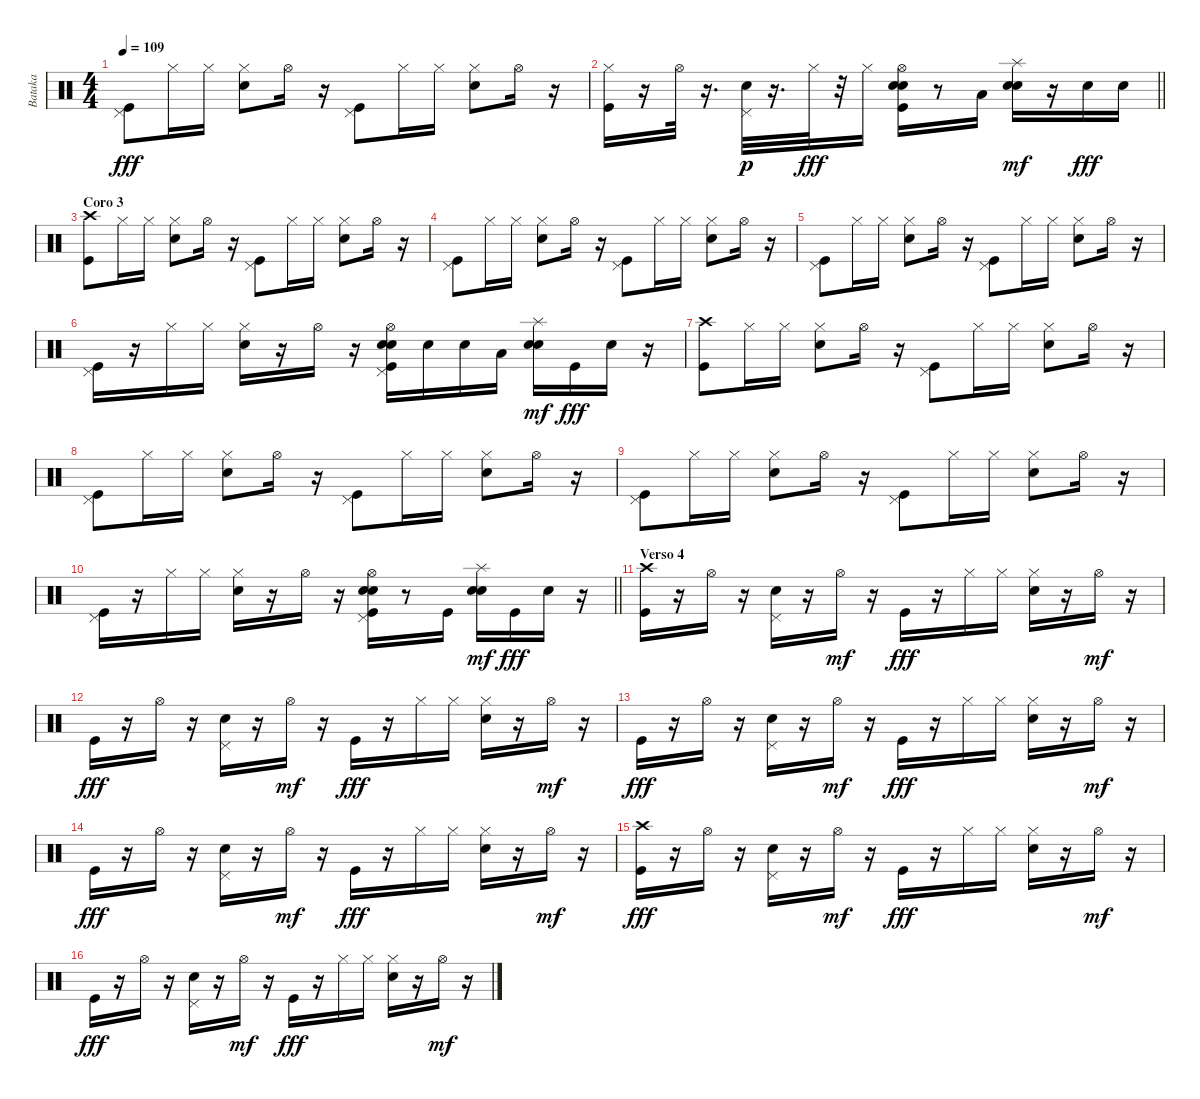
\track ("Bataka" "Bataka") {instrument percussion}
\staff {score}
\articulation defaults
\ts (4 4)
\tempo 109
\clef neutral
\ks c
("Kick (hit)" "Pedal Hi-Hat (hit)").8{dy fff} "Hi-Hat (closed)".16 "Hi-Hat (closed)".16 ("Snare (hit) 2" "Hi-Hat (closed)").8 "Hi-Hat (open)".16 r.16 ("Kick (hit)" "Pedal Hi-Hat (hit)").8 "Hi-Hat (closed)".16 "Hi-Hat (closed)".16 ("Snare (hit) 2" "Hi-Hat (closed)").8 "Hi-Hat (open)".16 r.16 |
\barLineRight lightlight
("Kick (hit)" "Hi-Hat (closed)").16 r.16 "Hi-Hat (open)".32 r.16{d} ("Snare (hit) 2" "Pedal Hi-Hat (hit)").32{dy p} r.16{d} "Hi-Hat (closed)".32{dy fff} r.32 "Hi-Hat (closed)".16 ("Snare (hit) 2" "Kick (hit)" "Snare (hit) 2" "Hi-Hat (open)").16 r.8 "Low Floor Tom (hit)".16 ("Snare (hit) 2" "Snare (hit) 2" "Splash (hit)").16{dy mf} r.16 "Snare (hit) 2".16{dy fff} "Snare (hit) 2".16 |
\section ("" "Coro 3")
("Kick (hit)" "Crash high (hit)").8 "Hi-Hat (closed)".16 "Hi-Hat (closed)".16 ("Snare (hit) 2" "Hi-Hat (closed)").8 "Hi-Hat (open)".16 r.16 ("Kick (hit)" "Pedal Hi-Hat (hit)").8 "Hi-Hat (closed)".16 "Hi-Hat (closed)".16 ("Snare (hit) 2" "Hi-Hat (closed)").8 "Hi-Hat (open)".16 r.16 |
("Kick (hit)" "Pedal Hi-Hat (hit)").8 "Hi-Hat (closed)".16 "Hi-Hat (closed)".16 ("Snare (hit) 2" "Hi-Hat (closed)").8 "Hi-Hat (open)".16 r.16 ("Kick (hit)" "Pedal Hi-Hat (hit)").8 "Hi-Hat (closed)".16 "Hi-Hat (closed)".16 ("Snare (hit) 2" "Hi-Hat (closed)").8 "Hi-Hat (open)".16 r.16 |
("Kick (hit)" "Pedal Hi-Hat (hit)").8 "Hi-Hat (closed)".16 "Hi-Hat (closed)".16 ("Snare (hit) 2" "Hi-Hat (closed)").8 "Hi-Hat (open)".16 r.16 ("Kick (hit)" "Pedal Hi-Hat (hit)").8 "Hi-Hat (closed)".16 "Hi-Hat (closed)".16 ("Snare (hit) 2" "Hi-Hat (closed)").8 "Hi-Hat (open)".16 r.16 |
("Kick (hit)" "Pedal Hi-Hat (hit)").16 r.16 "Hi-Hat (closed)".16 "Hi-Hat (closed)".16 ("Snare (hit) 2" "Hi-Hat (closed)").16 r.16 "Hi-Hat (open)".16 r.16 ("Snare (hit) 2" "Kick (hit)" "Snare (hit) 2" "Hi-Hat (open)" "Pedal Hi-Hat (hit)").16 "Snare (hit) 2".16 "Snare (hit) 2".16 "Low Floor Tom (hit)".16 ("Snare (hit) 2" "Snare (hit) 2" "Splash (hit)").16{dy mf} "Kick (hit)".16{dy fff} "Snare (hit) 2".16 r.16 |
("Kick (hit)" "Crash high (hit)").8 "Hi-Hat (closed)".16 "Hi-Hat (closed)".16 ("Snare (hit) 2" "Hi-Hat (closed)").8 "Hi-Hat (open)".16 r.16 ("Kick (hit)" "Pedal Hi-Hat (hit)").8 "Hi-Hat (closed)".16 "Hi-Hat (closed)".16 ("Snare (hit) 2" "Hi-Hat (closed)").8 "Hi-Hat (open)".16 r.16 |
("Kick (hit)" "Pedal Hi-Hat (hit)").8 "Hi-Hat (closed)".16 "Hi-Hat (closed)".16 ("Snare (hit) 2" "Hi-Hat (closed)").8 "Hi-Hat (open)".16 r.16 ("Kick (hit)" "Pedal Hi-Hat (hit)").8 "Hi-Hat (closed)".16 "Hi-Hat (closed)".16 ("Snare (hit) 2" "Hi-Hat (closed)").8 "Hi-Hat (open)".16 r.16 |
("Kick (hit)" "Pedal Hi-Hat (hit)").8 "Hi-Hat (closed)".16 "Hi-Hat (closed)".16 ("Snare (hit) 2" "Hi-Hat (closed)").8 "Hi-Hat (open)".16 r.16 ("Kick (hit)" "Pedal Hi-Hat (hit)").8 "Hi-Hat (closed)".16 "Hi-Hat (closed)".16 ("Snare (hit) 2" "Hi-Hat (closed)").8 "Hi-Hat (open)".16 r.16 |
\barLineRight lightlight
("Kick (hit)" "Pedal Hi-Hat (hit)").16 r.16 "Hi-Hat (closed)".16 "Hi-Hat (closed)".16 ("Snare (hit) 2" "Hi-Hat (closed)").16 r.16 "Hi-Hat (open)".16 r.16 ("Snare (hit) 2" "Kick (hit)" "Snare (hit) 2" "Hi-Hat (open)" "Pedal Hi-Hat (hit)").16 r.8 "Kick (hit)".16 ("Snare (hit) 2" "Snare (hit) 2" "Splash (hit)").16{dy mf} "Kick (hit)".16{dy fff} "Snare (hit) 2".16 r.16 |
\section ("" "Verso 4")
("Kick (hit)" "Crash high (hit)").16 r.16 "Hi-Hat (open)".16 r.16 ("Snare (hit) 2" "Pedal Hi-Hat (hit)").16 r.16 "Hi-Hat (open)".16{dy mf} r.16 "Kick (hit)".16{dy fff} r.16 "Hi-Hat (closed)".16 "Hi-Hat (closed)".16 ("Snare (hit) 2" "Hi-Hat (closed)").16 r.16 "Hi-Hat (open)".16{dy mf} r.16 |
"Kick (hit)".16{dy fff} r.16 "Hi-Hat (open)".16 r.16 ("Snare (hit) 2" "Pedal Hi-Hat (hit)").16 r.16 "Hi-Hat (open)".16{dy mf} r.16 "Kick (hit)".16{dy fff} r.16 "Hi-Hat (closed)".16 "Hi-Hat (closed)".16 ("Snare (hit) 2" "Hi-Hat (closed)").16 r.16 "Hi-Hat (open)".16{dy mf} r.16 |
"Kick (hit)".16{dy fff} r.16 "Hi-Hat (open)".16 r.16 ("Snare (hit) 2" "Pedal Hi-Hat (hit)").16 r.16 "Hi-Hat (open)".16{dy mf} r.16 "Kick (hit)".16{dy fff} r.16 "Hi-Hat (closed)".16 "Hi-Hat (closed)".16 ("Snare (hit) 2" "Hi-Hat (closed)").16 r.16 "Hi-Hat (open)".16{dy mf} r.16 |
"Kick (hit)".16{dy fff} r.16 "Hi-Hat (open)".16 r.16 ("Snare (hit) 2" "Pedal Hi-Hat (hit)").16 r.16 "Hi-Hat (open)".16{dy mf} r.16 "Kick (hit)".16{dy fff} r.16 "Hi-Hat (closed)".16 "Hi-Hat (closed)".16 ("Snare (hit) 2" "Hi-Hat (closed)").16 r.16 "Hi-Hat (open)".16{dy mf} r.16 |
("Kick (hit)" "Crash high (hit)").16{dy fff} r.16 "Hi-Hat (open)".16 r.16 ("Snare (hit) 2" "Pedal Hi-Hat (hit)").16 r.16 "Hi-Hat (open)".16{dy mf} r.16 "Kick (hit)".16{dy fff} r.16 "Hi-Hat (closed)".16 "Hi-Hat (closed)".16 ("Snare (hit) 2" "Hi-Hat (closed)").16 r.16 "Hi-Hat (open)".16{dy mf} r.16 |
"Kick (hit)".16{dy fff} r.16 "Hi-Hat (open)".16 r.16 ("Snare (hit) 2" "Pedal Hi-Hat (hit)").16 r.16 "Hi-Hat (open)".16{dy mf} r.16 "Kick (hit)".16{dy fff} r.16 "Hi-Hat (closed)".16 "Hi-Hat (closed)".16 ("Snare (hit) 2" "Hi-Hat (closed)").16 r.16 "Hi-Hat (open)".16{dy mf} r.16
